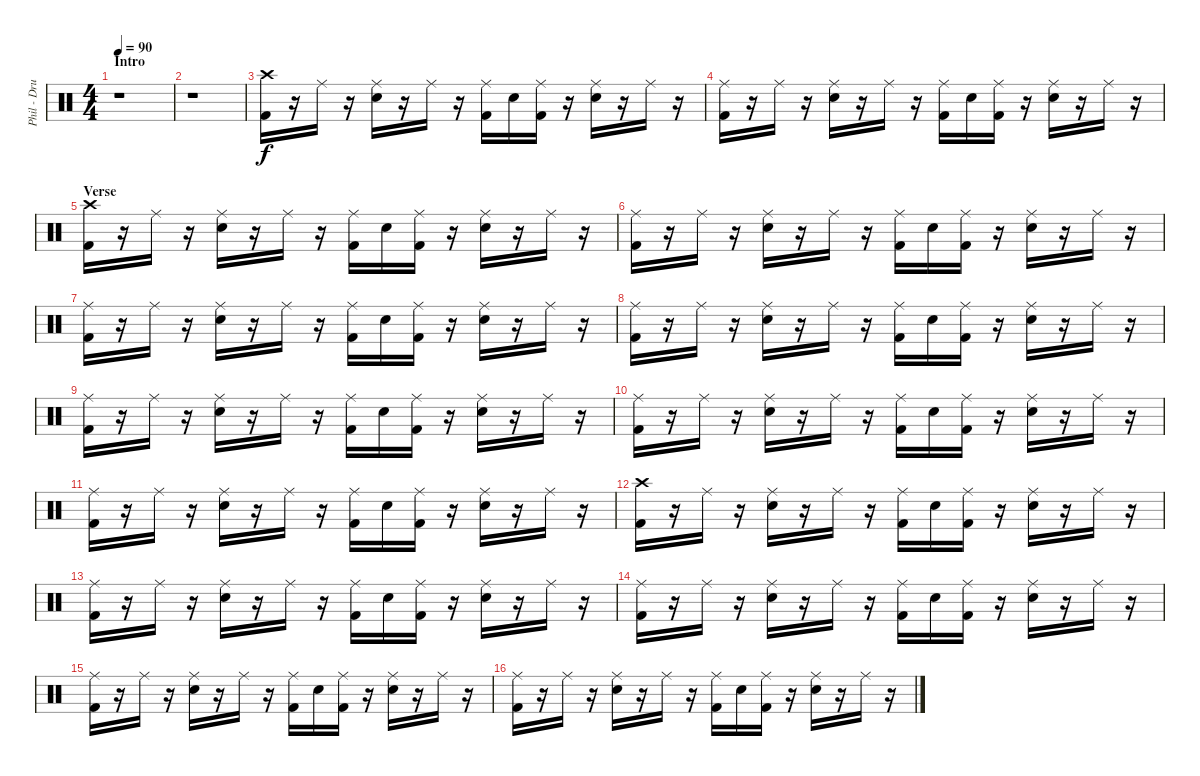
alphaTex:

\track ("Phil - Drums" "Phil - Dru") {instrument percussion}
\staff {score}
\articulation defaults
\ts (4 4)
\section ("" "Intro")
\tempo 90
\clef neutral
\ks c
r.1{dy f} |
r.1 |
("Crash high (hit)" "Kick (hit) 2").16 r.16 "Ride (middle)".16 r.16 ("Ride (middle)" "Snare (hit) 2").16 r.16 "Ride (middle)".16 r.16 ("Ride (middle)" "Kick (hit) 2").16 "Snare (hit) 2".16 ("Ride (middle)" "Kick (hit) 2").16 r.16 ("Ride (middle)" "Snare (hit) 2").16 r.16 "Ride (middle)".16 r.16 |
("Ride (middle)" "Kick (hit) 2").16 r.16 "Ride (middle)".16 r.16 ("Ride (middle)" "Snare (hit) 2").16 r.16 "Ride (middle)".16 r.16 ("Ride (middle)" "Kick (hit) 2").16 "Snare (hit) 2".16 ("Ride (middle)" "Kick (hit) 2").16 r.16 ("Ride (middle)" "Snare (hit) 2").16 r.16 "Ride (middle)".16 r.16 |
\section ("" "Verse")
("Crash high (hit)" "Kick (hit) 2").16 r.16 "Ride (middle)".16 r.16 ("Ride (middle)" "Snare (hit) 2").16 r.16 "Ride (middle)".16 r.16 ("Ride (middle)" "Kick (hit) 2").16 "Snare (hit) 2".16 ("Ride (middle)" "Kick (hit) 2").16 r.16 ("Ride (middle)" "Snare (hit) 2").16 r.16 "Ride (middle)".16 r.16 |
("Ride (middle)" "Kick (hit) 2").16 r.16 "Ride (middle)".16 r.16 ("Ride (middle)" "Snare (hit) 2").16 r.16 "Ride (middle)".16 r.16 ("Ride (middle)" "Kick (hit) 2").16 "Snare (hit) 2".16 ("Ride (middle)" "Kick (hit) 2").16 r.16 ("Ride (middle)" "Snare (hit) 2").16 r.16 "Ride (middle)".16 r.16 |
("Ride (middle)" "Kick (hit) 2").16 r.16 "Ride (middle)".16 r.16 ("Ride (middle)" "Snare (hit) 2").16 r.16 "Ride (middle)".16 r.16 ("Ride (middle)" "Kick (hit) 2").16 "Snare (hit) 2".16 ("Ride (middle)" "Kick (hit) 2").16 r.16 ("Ride (middle)" "Snare (hit) 2").16 r.16 "Ride (middle)".16 r.16 |
("Ride (middle)" "Kick (hit) 2").16 r.16 "Ride (middle)".16 r.16 ("Ride (middle)" "Snare (hit) 2").16 r.16 "Ride (middle)".16 r.16 ("Ride (middle)" "Kick (hit) 2").16 "Snare (hit) 2".16 ("Ride (middle)" "Kick (hit) 2").16 r.16 ("Ride (middle)" "Snare (hit) 2").16 r.16 "Ride (middle)".16 r.16 |
("Ride (middle)" "Kick (hit) 2").16 r.16 "Ride (middle)".16 r.16 ("Ride (middle)" "Snare (hit) 2").16 r.16 "Ride (middle)".16 r.16 ("Ride (middle)" "Kick (hit) 2").16 "Snare (hit) 2".16 ("Ride (middle)" "Kick (hit) 2").16 r.16 ("Ride (middle)" "Snare (hit) 2").16 r.16 "Ride (middle)".16 r.16 |
("Ride (middle)" "Kick (hit) 2").16 r.16 "Ride (middle)".16 r.16 ("Ride (middle)" "Snare (hit) 2").16 r.16 "Ride (middle)".16 r.16 ("Ride (middle)" "Kick (hit) 2").16 "Snare (hit) 2".16 ("Ride (middle)" "Kick (hit) 2").16 r.16 ("Ride (middle)" "Snare (hit) 2").16 r.16 "Ride (middle)".16 r.16 |
("Ride (middle)" "Kick (hit) 2").16 r.16 "Ride (middle)".16 r.16 ("Ride (middle)" "Snare (hit) 2").16 r.16 "Ride (middle)".16 r.16 ("Ride (middle)" "Kick (hit) 2").16 "Snare (hit) 2".16 ("Ride (middle)" "Kick (hit) 2").16 r.16 ("Ride (middle)" "Snare (hit) 2").16 r.16 "Ride (middle)".16 r.16 |
("Crash high (hit)" "Kick (hit) 2").16 r.16 "Ride (middle)".16 r.16 ("Ride (middle)" "Snare (hit) 2").16 r.16 "Ride (middle)".16 r.16 ("Ride (middle)" "Kick (hit) 2").16 "Snare (hit) 2".16 ("Ride (middle)" "Kick (hit) 2").16 r.16 ("Ride (middle)" "Snare (hit) 2").16 r.16 "Ride (middle)".16 r.16 |
("Ride (middle)" "Kick (hit) 2").16 r.16 "Ride (middle)".16 r.16 ("Ride (middle)" "Snare (hit) 2").16 r.16 "Ride (middle)".16 r.16 ("Ride (middle)" "Kick (hit) 2").16 "Snare (hit) 2".16 ("Ride (middle)" "Kick (hit) 2").16 r.16 ("Ride (middle)" "Snare (hit) 2").16 r.16 "Ride (middle)".16 r.16 |
("Ride (middle)" "Kick (hit) 2").16 r.16 "Ride (middle)".16 r.16 ("Ride (middle)" "Snare (hit) 2").16 r.16 "Ride (middle)".16 r.16 ("Ride (middle)" "Kick (hit) 2").16 "Snare (hit) 2".16 ("Ride (middle)" "Kick (hit) 2").16 r.16 ("Ride (middle)" "Snare (hit) 2").16 r.16 "Ride (middle)".16 r.16 |
("Ride (middle)" "Kick (hit) 2").16 r.16 "Ride (middle)".16 r.16 ("Ride (middle)" "Snare (hit) 2").16 r.16 "Ride (middle)".16 r.16 ("Ride (middle)" "Kick (hit) 2").16 "Snare (hit) 2".16 ("Ride (middle)" "Kick (hit) 2").16 r.16 ("Ride (middle)" "Snare (hit) 2").16 r.16 "Ride (middle)".16 r.16 |
("Ride (middle)" "Kick (hit) 2").16 r.16 "Ride (middle)".16 r.16 ("Ride (middle)" "Snare (hit) 2").16 r.16 "Ride (middle)".16 r.16 ("Ride (middle)" "Kick (hit) 2").16 "Snare (hit) 2".16 ("Ride (middle)" "Kick (hit) 2").16 r.16 ("Ride (middle)" "Snare (hit) 2").16 r.16 "Ride (middle)".16 r.16
